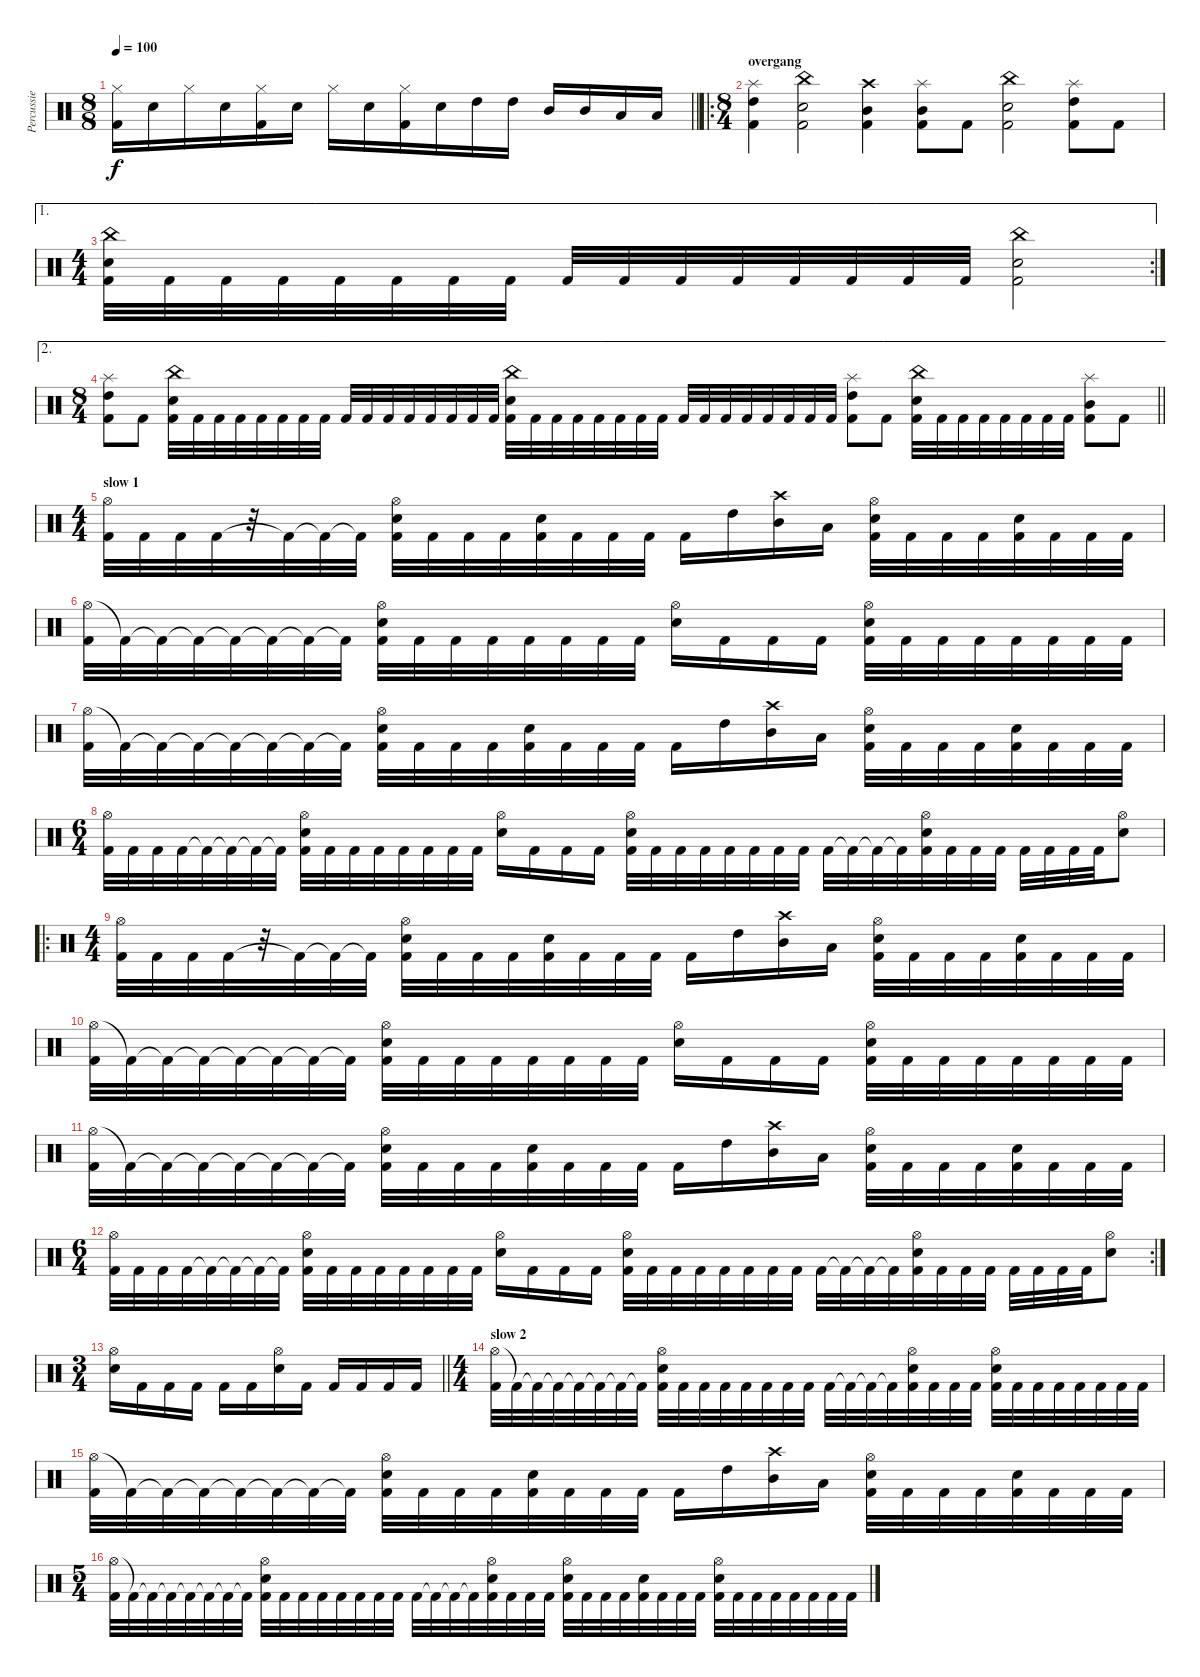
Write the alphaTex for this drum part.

\track ("Percussie" "Percussie") {instrument percussion}
\staff {score}
\articulation defaults
\ts (8 8)
\tempo 100
\clef neutral
\barLineRight lightlight
\ks c
("Hi-Hat (closed)" "Kick (hit) 2").16{dy f} "Electric Snare (hit)".16 "Hi-Hat (closed)".16 "Electric Snare (hit)".16 ("Hi-Hat (closed)" "Kick (hit) 2").16 "Electric Snare (hit)".16 "Hi-Hat (closed)".16 "Electric Snare (hit)".16 ("Hi-Hat (closed)" "Kick (hit) 2").16 "Electric Snare (hit)".16 "High Tom (hit)".16 "High Tom (hit)".16 "Mid Tom (hit)".16 "Mid Tom (hit)".16 "Low Tom (hit)".16 "Low Tom (hit)".16 |
\ro
\ts (8 4)
\section ("" "overgang")
("Splash (hit)" "High Tom (hit)" "Kick (hit) 2").4 ("China (hit)" "Electric Snare (hit)" "Kick (hit) 2").2 ("Crash high (hit)" "Mid Tom (hit)" "Kick (hit) 2").4 ("Splash (hit)" "Mid Tom (hit)" "Kick (hit) 2").8 "Kick (hit) 2".8 ("China (hit)" "Electric Snare (hit)" "Kick (hit) 2").2 ("Splash (hit)" "High Tom (hit)" "Kick (hit) 2").8 "Kick (hit) 2".8 |
\ae 1
\rc 2
\ts (4 4)
("China (hit)" "Electric Snare (hit)" "Kick (hit) 2").32 "Kick (hit) 2".32 "Kick (hit) 2".32 "Kick (hit) 2".32 "Kick (hit) 2".32 "Kick (hit) 2".32 "Kick (hit) 2".32 "Kick (hit) 2".32 "Kick (hit) 2".32 "Kick (hit) 2".32 "Kick (hit) 2".32 "Kick (hit) 2".32 "Kick (hit) 2".32 "Kick (hit) 2".32 "Kick (hit) 2".32 "Kick (hit) 2".32 ("China (hit)" "Electric Snare (hit)" "Kick (hit) 2").2 |
\ae 2
\ts (8 4)
\barLineRight lightlight
("Splash (hit)" "High Tom (hit)" "Kick (hit) 2").8 "Kick (hit) 2".8 ("China (hit)" "Electric Snare (hit)" "Kick (hit) 2").32 "Kick (hit) 2".32 "Kick (hit) 2".32 "Kick (hit) 2".32 "Kick (hit) 2".32 "Kick (hit) 2".32 "Kick (hit) 2".32 "Kick (hit) 2".32 "Kick (hit) 2".32 "Kick (hit) 2".32 "Kick (hit) 2".32 "Kick (hit) 2".32 "Kick (hit) 2".32 "Kick (hit) 2".32 "Kick (hit) 2".32 "Kick (hit) 2".32 ("China (hit)" "Electric Snare (hit)" "Kick (hit) 2").32 "Kick (hit) 2".32 "Kick (hit) 2".32 "Kick (hit) 2".32 "Kick (hit) 2".32 "Kick (hit) 2".32 "Kick (hit) 2".32 "Kick (hit) 2".32 "Kick (hit) 2".32 "Kick (hit) 2".32 "Kick (hit) 2".32 "Kick (hit) 2".32 "Kick (hit) 2".32 "Kick (hit) 2".32 "Kick (hit) 2".32 "Kick (hit) 2".32 ("Splash (hit)" "High Tom (hit)" "Kick (hit) 2").8 "Kick (hit) 2".8 ("China (hit)" "Electric Snare (hit)" "Kick (hit) 2").32 "Kick (hit) 2".32 "Kick (hit) 2".32 "Kick (hit) 2".32 "Kick (hit) 2".32 "Kick (hit) 2".32 "Kick (hit) 2".32 "Kick (hit) 2".32 ("Splash (hit)" "Mid Tom (hit)" "Kick (hit) 2").8 "Kick (hit) 2".8 |
\ts (4 4)
\section ("" "slow 1")
("Hi-Hat (open)" "Kick (hit) 2").32 "Kick (hit) 2".32 "Kick (hit) 2".32 "Kick (hit) 2".32 r.32 "Kick (hit) 2"{t}.32 "Kick (hit) 2"{t}.32 "Kick (hit) 2"{t}.32 ("Hi-Hat (open)" "Electric Snare (hit)" "Kick (hit) 2").32 "Kick (hit) 2".32 "Kick (hit) 2".32 "Kick (hit) 2".32 ("Electric Snare (hit)" "Kick (hit) 2").32 "Kick (hit) 2".32 "Kick (hit) 2".32 "Kick (hit) 2".32 "Kick (hit) 2".16 "High Tom (hit)".16 ("Crash high (hit)" "Mid Tom (hit)").16 "Low Tom (hit)".16 ("Hi-Hat (open)" "Electric Snare (hit)" "Kick (hit) 2").32 "Kick (hit) 2".32 "Kick (hit) 2".32 "Kick (hit) 2".32 ("Electric Snare (hit)" "Kick (hit) 2").32 "Kick (hit) 2".32 "Kick (hit) 2".32 "Kick (hit) 2".32 |
("Hi-Hat (open)" "Kick (hit) 2").32 "Kick (hit) 2"{t}.32 "Kick (hit) 2"{t}.32 "Kick (hit) 2"{t}.32 "Kick (hit) 2"{t}.32 "Kick (hit) 2"{t}.32 "Kick (hit) 2"{t}.32 "Kick (hit) 2"{t}.32 ("Hi-Hat (open)" "Electric Snare (hit)" "Kick (hit) 2").32 "Kick (hit) 2".32 "Kick (hit) 2".32 "Kick (hit) 2".32 "Kick (hit) 2".32 "Kick (hit) 2".32 "Kick (hit) 2".32 "Kick (hit) 2".32 ("Hi-Hat (open)" "Electric Snare (hit)").16 "Kick (hit) 2".16 "Kick (hit) 2".16 "Kick (hit) 2".16 ("Hi-Hat (open)" "Electric Snare (hit)" "Kick (hit) 2").32 "Kick (hit) 2".32 "Kick (hit) 2".32 "Kick (hit) 2".32 "Kick (hit) 2".32 "Kick (hit) 2".32 "Kick (hit) 2".32 "Kick (hit) 2".32 |
("Hi-Hat (open)" "Kick (hit) 2").32 "Kick (hit) 2"{t}.32 "Kick (hit) 2"{t}.32 "Kick (hit) 2"{t}.32 "Kick (hit) 2"{t}.32 "Kick (hit) 2"{t}.32 "Kick (hit) 2"{t}.32 "Kick (hit) 2"{t}.32 ("Hi-Hat (open)" "Electric Snare (hit)" "Kick (hit) 2").32 "Kick (hit) 2".32 "Kick (hit) 2".32 "Kick (hit) 2".32 ("Electric Snare (hit)" "Kick (hit) 2").32 "Kick (hit) 2".32 "Kick (hit) 2".32 "Kick (hit) 2".32 "Kick (hit) 2".16 "High Tom (hit)".16 ("Crash high (hit)" "Mid Tom (hit)").16 "Low Tom (hit)".16 ("Hi-Hat (open)" "Electric Snare (hit)" "Kick (hit) 2").32 "Kick (hit) 2".32 "Kick (hit) 2".32 "Kick (hit) 2".32 ("Electric Snare (hit)" "Kick (hit) 2").32 "Kick (hit) 2".32 "Kick (hit) 2".32 "Kick (hit) 2".32 |
\ts (6 4)
("Hi-Hat (open)" "Kick (hit) 2").32 "Kick (hit) 2".32 "Kick (hit) 2".32 "Kick (hit) 2".32 "Kick (hit) 2"{t}.32 "Kick (hit) 2"{t}.32 "Kick (hit) 2"{t}.32 "Kick (hit) 2"{t}.32 ("Hi-Hat (open)" "Electric Snare (hit)" "Kick (hit) 2").32 "Kick (hit) 2".32 "Kick (hit) 2".32 "Kick (hit) 2".32 "Kick (hit) 2".32 "Kick (hit) 2".32 "Kick (hit) 2".32 "Kick (hit) 2".32 ("Hi-Hat (open)" "Electric Snare (hit)").16 "Kick (hit) 2".16 "Kick (hit) 2".16 "Kick (hit) 2".16 ("Hi-Hat (open)" "Electric Snare (hit)" "Kick (hit) 2").32 "Kick (hit) 2".32 "Kick (hit) 2".32 "Kick (hit) 2".32 "Kick (hit) 2".32 "Kick (hit) 2".32 "Kick (hit) 2".32 "Kick (hit) 2".32 "Kick (hit) 2".32 "Kick (hit) 2"{t}.32 "Kick (hit) 2"{t}.32 "Kick (hit) 2"{t}.32 ("Hi-Hat (open)" "Electric Snare (hit)" "Kick (hit) 2").32 "Kick (hit) 2".32 "Kick (hit) 2".32 "Kick (hit) 2".32 "Kick (hit) 2".32 "Kick (hit) 2".32 "Kick (hit) 2".32 "Kick (hit) 2".32 ("Hi-Hat (open)" "Electric Snare (hit)").8 |
\ro
\ts (4 4)
("Hi-Hat (open)" "Kick (hit) 2").32 "Kick (hit) 2".32 "Kick (hit) 2".32 "Kick (hit) 2".32 r.32 "Kick (hit) 2"{t}.32 "Kick (hit) 2"{t}.32 "Kick (hit) 2"{t}.32 ("Hi-Hat (open)" "Electric Snare (hit)" "Kick (hit) 2").32 "Kick (hit) 2".32 "Kick (hit) 2".32 "Kick (hit) 2".32 ("Electric Snare (hit)" "Kick (hit) 2").32 "Kick (hit) 2".32 "Kick (hit) 2".32 "Kick (hit) 2".32 "Kick (hit) 2".16 "High Tom (hit)".16 ("Crash high (hit)" "Mid Tom (hit)").16 "Low Tom (hit)".16 ("Hi-Hat (open)" "Electric Snare (hit)" "Kick (hit) 2").32 "Kick (hit) 2".32 "Kick (hit) 2".32 "Kick (hit) 2".32 ("Electric Snare (hit)" "Kick (hit) 2").32 "Kick (hit) 2".32 "Kick (hit) 2".32 "Kick (hit) 2".32 |
("Hi-Hat (open)" "Kick (hit) 2").32 "Kick (hit) 2"{t}.32 "Kick (hit) 2"{t}.32 "Kick (hit) 2"{t}.32 "Kick (hit) 2"{t}.32 "Kick (hit) 2"{t}.32 "Kick (hit) 2"{t}.32 "Kick (hit) 2"{t}.32 ("Hi-Hat (open)" "Electric Snare (hit)" "Kick (hit) 2").32 "Kick (hit) 2".32 "Kick (hit) 2".32 "Kick (hit) 2".32 "Kick (hit) 2".32 "Kick (hit) 2".32 "Kick (hit) 2".32 "Kick (hit) 2".32 ("Hi-Hat (open)" "Electric Snare (hit)").16 "Kick (hit) 2".16 "Kick (hit) 2".16 "Kick (hit) 2".16 ("Hi-Hat (open)" "Electric Snare (hit)" "Kick (hit) 2").32 "Kick (hit) 2".32 "Kick (hit) 2".32 "Kick (hit) 2".32 "Kick (hit) 2".32 "Kick (hit) 2".32 "Kick (hit) 2".32 "Kick (hit) 2".32 |
("Hi-Hat (open)" "Kick (hit) 2").32 "Kick (hit) 2"{t}.32 "Kick (hit) 2"{t}.32 "Kick (hit) 2"{t}.32 "Kick (hit) 2"{t}.32 "Kick (hit) 2"{t}.32 "Kick (hit) 2"{t}.32 "Kick (hit) 2"{t}.32 ("Hi-Hat (open)" "Electric Snare (hit)" "Kick (hit) 2").32 "Kick (hit) 2".32 "Kick (hit) 2".32 "Kick (hit) 2".32 ("Electric Snare (hit)" "Kick (hit) 2").32 "Kick (hit) 2".32 "Kick (hit) 2".32 "Kick (hit) 2".32 "Kick (hit) 2".16 "High Tom (hit)".16 ("Crash high (hit)" "Mid Tom (hit)").16 "Low Tom (hit)".16 ("Hi-Hat (open)" "Electric Snare (hit)" "Kick (hit) 2").32 "Kick (hit) 2".32 "Kick (hit) 2".32 "Kick (hit) 2".32 ("Electric Snare (hit)" "Kick (hit) 2").32 "Kick (hit) 2".32 "Kick (hit) 2".32 "Kick (hit) 2".32 |
\rc 2
\ts (6 4)
("Hi-Hat (open)" "Kick (hit) 2").32 "Kick (hit) 2".32 "Kick (hit) 2".32 "Kick (hit) 2".32 "Kick (hit) 2"{t}.32 "Kick (hit) 2"{t}.32 "Kick (hit) 2"{t}.32 "Kick (hit) 2"{t}.32 ("Hi-Hat (open)" "Electric Snare (hit)" "Kick (hit) 2").32 "Kick (hit) 2".32 "Kick (hit) 2".32 "Kick (hit) 2".32 "Kick (hit) 2".32 "Kick (hit) 2".32 "Kick (hit) 2".32 "Kick (hit) 2".32 ("Hi-Hat (open)" "Electric Snare (hit)").16 "Kick (hit) 2".16 "Kick (hit) 2".16 "Kick (hit) 2".16 ("Hi-Hat (open)" "Electric Snare (hit)" "Kick (hit) 2").32 "Kick (hit) 2".32 "Kick (hit) 2".32 "Kick (hit) 2".32 "Kick (hit) 2".32 "Kick (hit) 2".32 "Kick (hit) 2".32 "Kick (hit) 2".32 "Kick (hit) 2".32 "Kick (hit) 2"{t}.32 "Kick (hit) 2"{t}.32 "Kick (hit) 2"{t}.32 ("Hi-Hat (open)" "Electric Snare (hit)" "Kick (hit) 2").32 "Kick (hit) 2".32 "Kick (hit) 2".32 "Kick (hit) 2".32 "Kick (hit) 2".32 "Kick (hit) 2".32 "Kick (hit) 2".32 "Kick (hit) 2".32 ("Hi-Hat (open)" "Electric Snare (hit)").8 |
\ts (3 4)
\barLineRight lightlight
("Hi-Hat (open)" "Electric Snare (hit)").16 "Kick (hit) 2".16 "Kick (hit) 2".16 "Kick (hit) 2".16 "Kick (hit) 2".16 "Kick (hit) 2".16 ("Hi-Hat (open)" "Electric Snare (hit)").16 "Kick (hit) 2".16 "Kick (hit) 2".16 "Kick (hit) 2".16 "Kick (hit) 2".16 "Kick (hit) 2".16 |
\ts (4 4)
\section ("" "slow 2")
("Hi-Hat (open)" "Kick (hit) 2").32 "Kick (hit) 2"{t}.32 "Kick (hit) 2"{t}.32 "Kick (hit) 2"{t}.32 "Kick (hit) 2"{t}.32 "Kick (hit) 2"{t}.32 "Kick (hit) 2"{t}.32 "Kick (hit) 2"{t}.32 ("Hi-Hat (open)" "Electric Snare (hit)" "Kick (hit) 2").32 "Kick (hit) 2".32 "Kick (hit) 2".32 "Kick (hit) 2".32 "Kick (hit) 2".32 "Kick (hit) 2".32 "Kick (hit) 2".32 "Kick (hit) 2".32 "Kick (hit) 2".32 "Kick (hit) 2"{t}.32 "Kick (hit) 2"{t}.32 "Kick (hit) 2"{t}.32 ("Hi-Hat (open)" "Electric Snare (hit)" "Kick (hit) 2").32 "Kick (hit) 2".32 "Kick (hit) 2".32 "Kick (hit) 2".32 ("Hi-Hat (open)" "Electric Snare (hit)" "Kick (hit) 2").32 "Kick (hit) 2".32 "Kick (hit) 2".32 "Kick (hit) 2".32 "Kick (hit) 2".32 "Kick (hit) 2".32 "Kick (hit) 2".32 "Kick (hit) 2".32 |
("Hi-Hat (open)" "Kick (hit) 2").32 "Kick (hit) 2"{t}.32 "Kick (hit) 2"{t}.32 "Kick (hit) 2"{t}.32 "Kick (hit) 2"{t}.32 "Kick (hit) 2"{t}.32 "Kick (hit) 2"{t}.32 "Kick (hit) 2"{t}.32 ("Hi-Hat (open)" "Electric Snare (hit)" "Kick (hit) 2").32 "Kick (hit) 2".32 "Kick (hit) 2".32 "Kick (hit) 2".32 ("Electric Snare (hit)" "Kick (hit) 2").32 "Kick (hit) 2".32 "Kick (hit) 2".32 "Kick (hit) 2".32 "Kick (hit) 2".16 "High Tom (hit)".16 ("Crash high (hit)" "Mid Tom (hit)").16 "Low Tom (hit)".16 ("Hi-Hat (open)" "Electric Snare (hit)" "Kick (hit) 2").32 "Kick (hit) 2".32 "Kick (hit) 2".32 "Kick (hit) 2".32 ("Electric Snare (hit)" "Kick (hit) 2").32 "Kick (hit) 2".32 "Kick (hit) 2".32 "Kick (hit) 2".32 |
\ts (5 4)
("Hi-Hat (open)" "Kick (hit) 2").32 "Kick (hit) 2"{t}.32 "Kick (hit) 2"{t}.32 "Kick (hit) 2"{t}.32 "Kick (hit) 2"{t}.32 "Kick (hit) 2"{t}.32 "Kick (hit) 2"{t}.32 "Kick (hit) 2"{t}.32 ("Hi-Hat (open)" "Electric Snare (hit)" "Kick (hit) 2").32 "Kick (hit) 2".32 "Kick (hit) 2".32 "Kick (hit) 2".32 "Kick (hit) 2".32 "Kick (hit) 2".32 "Kick (hit) 2".32 "Kick (hit) 2".32 "Kick (hit) 2".32 "Kick (hit) 2"{t}.32 "Kick (hit) 2"{t}.32 "Kick (hit) 2"{t}.32 ("Hi-Hat (open)" "Electric Snare (hit)" "Kick (hit) 2").32 "Kick (hit) 2".32 "Kick (hit) 2".32 "Kick (hit) 2".32 ("Hi-Hat (open)" "Electric Snare (hit)" "Kick (hit) 2").32 "Kick (hit) 2".32 "Kick (hit) 2".32 "Kick (hit) 2".32 ("Electric Snare (hit)" "Kick (hit) 2").32 "Kick (hit) 2".32 "Kick (hit) 2".32 "Kick (hit) 2".32 ("Hi-Hat (open)" "Electric Snare (hit)" "Kick (hit) 2").32 "Kick (hit) 2".32 "Kick (hit) 2".32 "Kick (hit) 2".32 "Kick (hit) 2".32 "Kick (hit) 2".32 "Kick (hit) 2".32 "Kick (hit) 2".32
